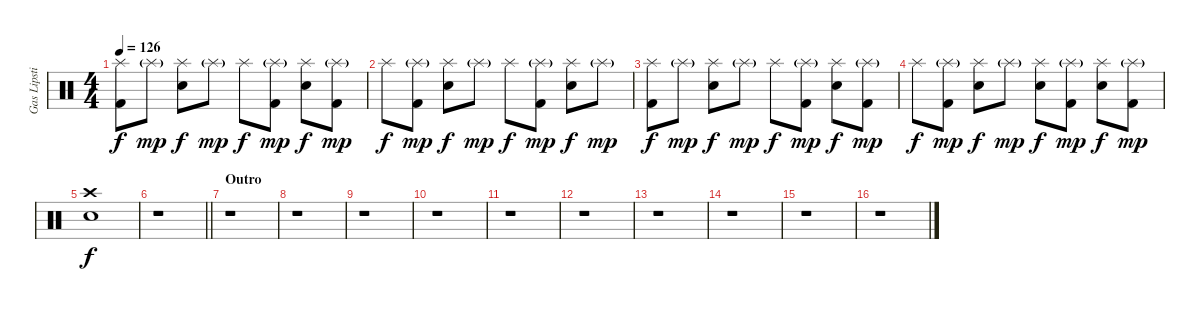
\track ("Gas Lipstick (Drums)" "Gas Lipsti") {instrument percussion}
\staff {score}
\articulation defaults
\ts (4 4)
\tempo 126
\clef neutral
\ks c
("Splash (hit)" "Kick (hit) 2").8{dy f} "Splash (hit)"{g}.8{dy mp} ("Splash (hit)" "Snare (hit) 2").8{dy f} "Splash (hit)"{g}.8{dy mp} "Splash (hit)".8{dy f} ("Splash (hit)"{g} "Kick (hit) 2").8{dy mp} ("Splash (hit)" "Snare (hit) 2").8{dy f} ("Splash (hit)"{g} "Kick (hit) 2").8{dy mp} |
"Splash (hit)".8{dy f} ("Splash (hit)"{g} "Kick (hit) 2").8{dy mp} ("Splash (hit)" "Snare (hit) 2").8{dy f} "Splash (hit)"{g}.8{dy mp} "Splash (hit)".8{dy f} ("Splash (hit)"{g} "Kick (hit) 2").8{dy mp} ("Splash (hit)" "Snare (hit) 2").8{dy f} "Splash (hit)"{g}.8{dy mp} |
("Splash (hit)" "Kick (hit) 2").8{dy f} "Splash (hit)"{g}.8{dy mp} ("Splash (hit)" "Snare (hit) 2").8{dy f} "Splash (hit)"{g}.8{dy mp} "Splash (hit)".8{dy f} ("Splash (hit)"{g} "Kick (hit) 2").8{dy mp} ("Splash (hit)" "Snare (hit) 2").8{dy f} ("Splash (hit)"{g} "Kick (hit) 2").8{dy mp} |
"Splash (hit)".8{dy f} ("Splash (hit)"{g} "Kick (hit) 2").8{dy mp} ("Splash (hit)" "Snare (hit) 2").8{dy f} "Splash (hit)"{g}.8{dy mp} ("Splash (hit)" "Snare (hit) 2").8{dy f} ("Splash (hit)"{g} "Kick (hit) 2").8{dy mp} ("Splash (hit)" "Snare (hit) 2").8{dy f} ("Splash (hit)"{g} "Kick (hit) 2").8{dy mp} |
("Crash high (hit)" "Snare (hit) 2").1{dy f} |
\barLineRight lightlight
r.1 |
\section ("" "Outro")
r.1 |
r.1 |
r.1 |
r.1 |
r.1 |
r.1 |
r.1 |
r.1 |
r.1 |
r.1
